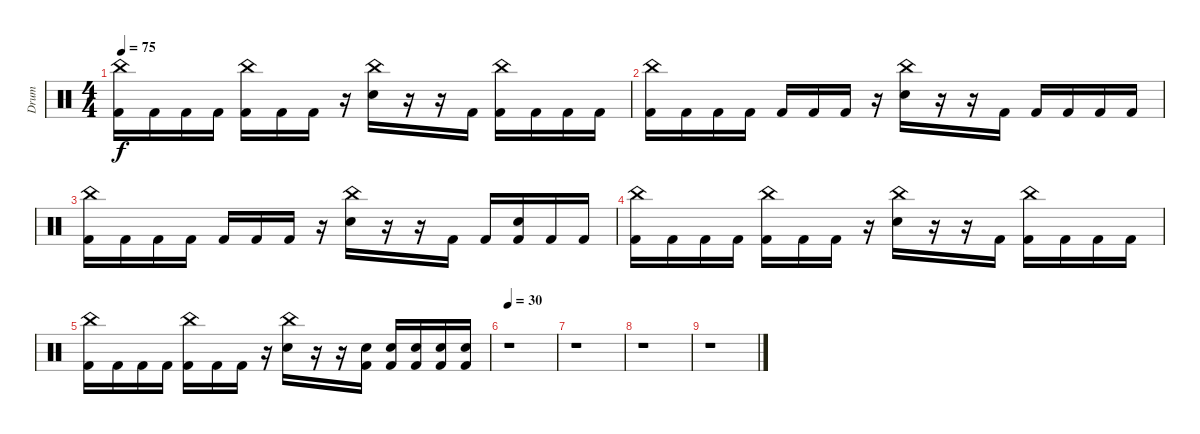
\track ("Drum" "Drum") {instrument percussion}
\staff {score}
\articulation defaults
\ts (4 4)
\tempo 75
\clef neutral
\ks c
("China (hit)" "Kick (hit) 2").16{dy f} "Kick (hit) 2".16 "Kick (hit) 2".16 "Kick (hit) 2".16 ("China (hit)" "Kick (hit) 2").16 "Kick (hit) 2".16 "Kick (hit) 2".16 r.16 ("China (hit)" "Electric Snare (hit)").16 r.16 r.16 "Kick (hit) 2".16 ("China (hit)" "Kick (hit) 2").16 "Kick (hit) 2".16 "Kick (hit) 2".16 "Kick (hit) 2".16 |
("China (hit)" "Kick (hit) 2").16 "Kick (hit) 2".16 "Kick (hit) 2".16 "Kick (hit) 2".16 "Kick (hit) 2".16 "Kick (hit) 2".16 "Kick (hit) 2".16 r.16 ("China (hit)" "Electric Snare (hit)").16 r.16 r.16 "Kick (hit) 2".16 "Kick (hit) 2".16 "Kick (hit) 2".16 "Kick (hit) 2".16 "Kick (hit) 2".16 |
("China (hit)" "Kick (hit) 2").16 "Kick (hit) 2".16 "Kick (hit) 2".16 "Kick (hit) 2".16 "Kick (hit) 2".16 "Kick (hit) 2".16 "Kick (hit) 2".16 r.16 ("China (hit)" "Electric Snare (hit)").16 r.16 r.16 "Kick (hit) 2".16 "Kick (hit) 2".16 ("Electric Snare (hit)" "Kick (hit) 2").16 "Kick (hit) 2".16 "Kick (hit) 2".16 |
("China (hit)" "Kick (hit) 2").16 "Kick (hit) 2".16 "Kick (hit) 2".16 "Kick (hit) 2".16 ("China (hit)" "Kick (hit) 2").16 "Kick (hit) 2".16 "Kick (hit) 2".16 r.16 ("China (hit)" "Electric Snare (hit)").16 r.16 r.16 "Kick (hit) 2".16 ("China (hit)" "Kick (hit) 2").16 "Kick (hit) 2".16 "Kick (hit) 2".16 "Kick (hit) 2".16 |
("China (hit)" "Kick (hit) 2").16 "Kick (hit) 2".16 "Kick (hit) 2".16 "Kick (hit) 2".16 ("China (hit)" "Kick (hit) 2").16 "Kick (hit) 2".16 "Kick (hit) 2".16 r.16 ("China (hit)" "Electric Snare (hit)").16 r.16 r.16 ("Electric Snare (hit)" "Kick (hit) 2").16 ("Electric Snare (hit)" "Kick (hit) 2").16 ("Electric Snare (hit)" "Kick (hit) 2").16 ("Electric Snare (hit)" "Kick (hit) 2").16 ("Electric Snare (hit)" "Kick (hit) 2").16 |
\tempo 30
r.1 |
r.1 |
r.1 |
r.1
